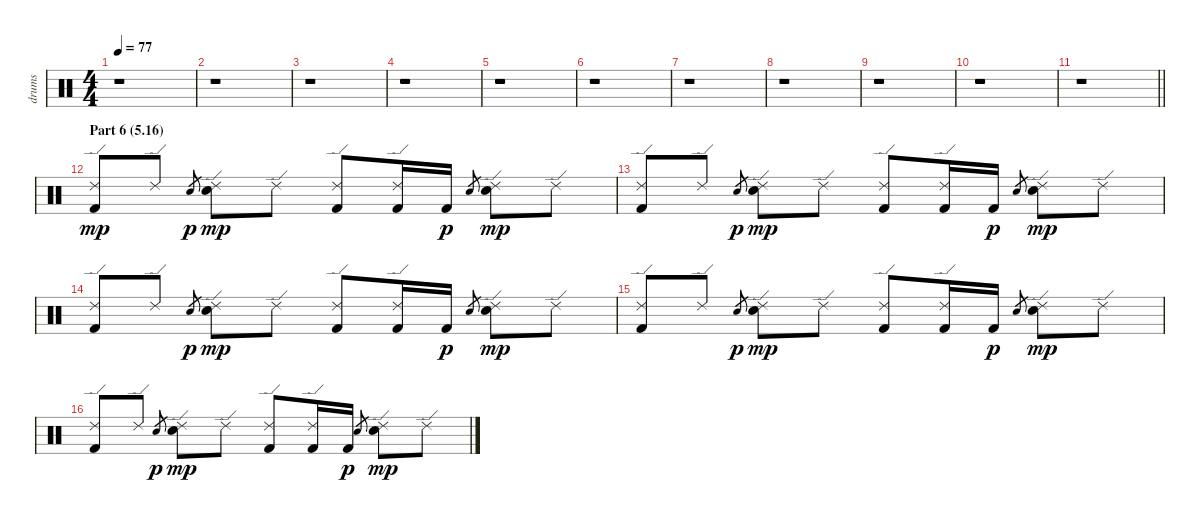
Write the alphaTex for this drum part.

\track ("drums" "drums") {instrument percussion}
\staff {score}
\articulation defaults
\ts (4 4)
\tempo 77
\clef neutral
\ks c
r.1{dy pp} |
r.1 |
r.1 |
r.1 |
r.1 |
r.1 |
r.1 |
r.1 |
r.1 |
r.1 |
\barLineRight lightlight
r.1 |
\section ("" "Part 6 (5.16)")
("Ride (edge) 2" "Kick (hit) 2").8{dy mp} "Ride (edge) 2".8 "Snare (hit) 2".8{gr dy p} ("Ride (edge) 2" "Snare (hit) 2").8{dy mp} "Ride (edge) 2".8 ("Ride (edge) 2" "Kick (hit) 2").8 ("Kick (hit) 2" "Ride (edge) 2").16 "Kick (hit) 2".16{dy p} "Snare (hit) 2".8{gr} ("Ride (edge) 2" "Snare (hit) 2").8{dy mp} "Ride (edge) 2".8 |
("Ride (edge) 2" "Kick (hit) 2").8 "Ride (edge) 2".8 "Snare (hit) 2".8{gr dy p} ("Ride (edge) 2" "Snare (hit) 2").8{dy mp} "Ride (edge) 2".8 ("Ride (edge) 2" "Kick (hit) 2").8 ("Kick (hit) 2" "Ride (edge) 2").16 "Kick (hit) 2".16{dy p} "Snare (hit) 2".8{gr} ("Ride (edge) 2" "Snare (hit) 2").8{dy mp} "Ride (edge) 2".8 |
("Ride (edge) 2" "Kick (hit) 2").8 "Ride (edge) 2".8 "Snare (hit) 2".8{gr dy p} ("Ride (edge) 2" "Snare (hit) 2").8{dy mp} "Ride (edge) 2".8 ("Ride (edge) 2" "Kick (hit) 2").8 ("Kick (hit) 2" "Ride (edge) 2").16 "Kick (hit) 2".16{dy p} "Snare (hit) 2".8{gr} ("Ride (edge) 2" "Snare (hit) 2").8{dy mp} "Ride (edge) 2".8 |
("Ride (edge) 2" "Kick (hit) 2").8 "Ride (edge) 2".8 "Snare (hit) 2".8{gr dy p} ("Ride (edge) 2" "Snare (hit) 2").8{dy mp} "Ride (edge) 2".8 ("Ride (edge) 2" "Kick (hit) 2").8 ("Kick (hit) 2" "Ride (edge) 2").16 "Kick (hit) 2".16{dy p} "Snare (hit) 2".8{gr} ("Ride (edge) 2" "Snare (hit) 2").8{dy mp} "Ride (edge) 2".8 |
("Ride (edge) 2" "Kick (hit) 2").8 "Ride (edge) 2".8 "Snare (hit) 2".8{gr dy p} ("Ride (edge) 2" "Snare (hit) 2").8{dy mp} "Ride (edge) 2".8 ("Ride (edge) 2" "Kick (hit) 2").8 ("Kick (hit) 2" "Ride (edge) 2").16 "Kick (hit) 2".16{dy p} "Snare (hit) 2".8{gr} ("Ride (edge) 2" "Snare (hit) 2").8{dy mp} "Ride (edge) 2".8
